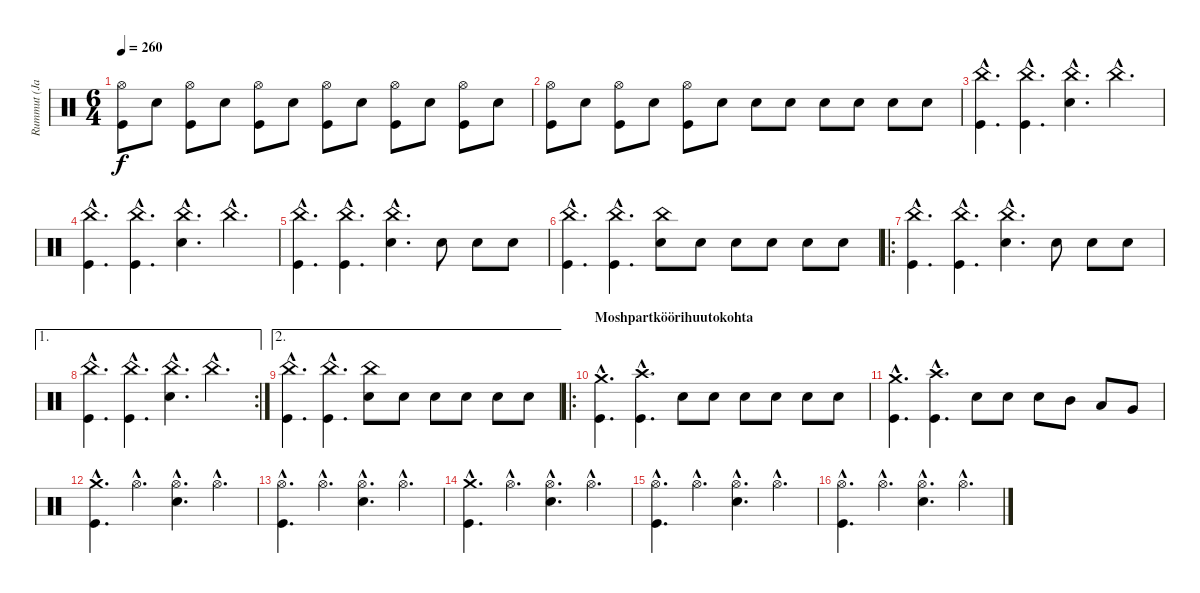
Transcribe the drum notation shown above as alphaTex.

\track ("Rummut (Janne)" "Rummut (Ja") {instrument percussion}
\staff {score}
\articulation defaults
\ts (6 4)
\tempo 260
\clef neutral
\ks c
("Hi-Hat (open)" "Kick (hit)").8{dy f} "Snare (hit) 2".8 ("Hi-Hat (open)" "Kick (hit)").8 "Snare (hit) 2".8 ("Hi-Hat (open)" "Kick (hit)").8 "Snare (hit) 2".8 ("Hi-Hat (open)" "Kick (hit)").8 "Snare (hit) 2".8 ("Hi-Hat (open)" "Kick (hit)").8 "Snare (hit) 2".8 ("Hi-Hat (open)" "Kick (hit)").8 "Snare (hit) 2".8 |
("Hi-Hat (open)" "Kick (hit)").8 "Snare (hit) 2".8 ("Hi-Hat (open)" "Kick (hit)").8 "Snare (hit) 2".8 ("Hi-Hat (open)" "Kick (hit)").8 "Snare (hit) 2".8 "Snare (hit) 2".8 "Snare (hit) 2".8 "Snare (hit) 2".8 "Snare (hit) 2".8 "Snare (hit) 2".8 "Snare (hit) 2".8 |
("China (hit)"{hac} "Kick (hit)"{hac}).4{d} ("China (hit)"{hac} "Kick (hit)"{hac}).4{d} ("China (hit)"{hac} "Snare (hit) 2"{hac}).4{d} "China (hit)"{hac}.4{d} |
("China (hit)"{hac} "Kick (hit)"{hac}).4{d} ("China (hit)"{hac} "Kick (hit)"{hac}).4{d} ("China (hit)"{hac} "Snare (hit) 2"{hac}).4{d} "China (hit)"{hac}.4{d} |
("China (hit)"{hac} "Kick (hit)"{hac}).4{d} ("China (hit)"{hac} "Kick (hit)"{hac}).4{d} ("China (hit)"{hac} "Snare (hit) 2"{hac}).4{d} "Snare (hit) 2".8 "Snare (hit) 2".8 "Snare (hit) 2".8 |
("China (hit)"{hac} "Kick (hit)"{hac}).4{d} ("China (hit)"{hac} "Kick (hit)"{hac}).4{d} ("China (hit)" "Snare (hit) 2").8 "Snare (hit) 2".8 "Snare (hit) 2".8 "Snare (hit) 2".8 "Snare (hit) 2".8 "Snare (hit) 2".8 |
\ro
("China (hit)"{hac} "Kick (hit)"{hac}).4{d} ("China (hit)"{hac} "Kick (hit)"{hac}).4{d} ("China (hit)"{hac} "Snare (hit) 2"{hac}).4{d} "Snare (hit) 2".8 "Snare (hit) 2".8 "Snare (hit) 2".8 |
\ae 1
\rc 2
("China (hit)"{hac} "Kick (hit)"{hac}).4{d} ("China (hit)"{hac} "Kick (hit)"{hac}).4{d} ("China (hit)"{hac} "Snare (hit) 2"{hac}).4{d} "China (hit)"{hac}.4{d} |
\ae 2
("China (hit)"{hac} "Kick (hit)"{hac}).4{d} ("China (hit)"{hac} "Kick (hit)"{hac}).4{d} ("China (hit)" "Snare (hit) 2").8 "Snare (hit) 2".8 "Snare (hit) 2".8 "Snare (hit) 2".8 "Snare (hit) 2".8 "Snare (hit) 2".8 |
\ro
\section ("" "Moshpartköörihuutokohta")
("Crash medium (hit)"{hac} "Kick (hit)"{hac}).4{d} ("Crash high (hit)"{hac} "Kick (hit)"{hac}).4{d} "Snare (hit) 2".8 "Snare (hit) 2".8 "Snare (hit) 2".8 "Snare (hit) 2".8 "Snare (hit) 2".8 "Snare (hit) 2".8 |
("Crash medium (hit)"{hac} "Kick (hit)"{hac}).4{d} ("Crash high (hit)"{hac} "Kick (hit)"{hac}).4{d} "Snare (hit) 2".8 "Snare (hit) 2".8 "Snare (hit) 2".8 "Mid Tom (hit)".8 "Low Tom (hit)".8 "Very Low Tom (hit)".8 |
("Crash medium (hit)"{hac} "Kick (hit)"{hac}).4{d} "Hi-Hat (open)"{hac}.4{d} ("Hi-Hat (open)"{hac} "Snare (hit) 2"{hac}).4{d} "Hi-Hat (open)"{hac}.4{d} |
("Hi-Hat (open)"{hac} "Kick (hit)"{hac}).4{d} "Hi-Hat (open)"{hac}.4{d} ("Hi-Hat (open)"{hac} "Snare (hit) 2"{hac}).4{d} "Hi-Hat (open)"{hac}.4{d} |
("Crash medium (hit)"{hac} "Kick (hit)"{hac}).4{d} "Hi-Hat (open)"{hac}.4{d} ("Hi-Hat (open)"{hac} "Snare (hit) 2"{hac}).4{d} "Hi-Hat (open)"{hac}.4{d} |
("Hi-Hat (open)"{hac} "Kick (hit)"{hac}).4{d} "Hi-Hat (open)"{hac}.4{d} ("Hi-Hat (open)"{hac} "Snare (hit) 2"{hac}).4{d} "Hi-Hat (open)"{hac}.4{d} |
("Hi-Hat (open)"{hac} "Kick (hit)"{hac}).4{d} "Hi-Hat (open)"{hac}.4{d} ("Hi-Hat (open)"{hac} "Snare (hit) 2"{hac}).4{d} "Hi-Hat (open)"{hac}.4{d}
